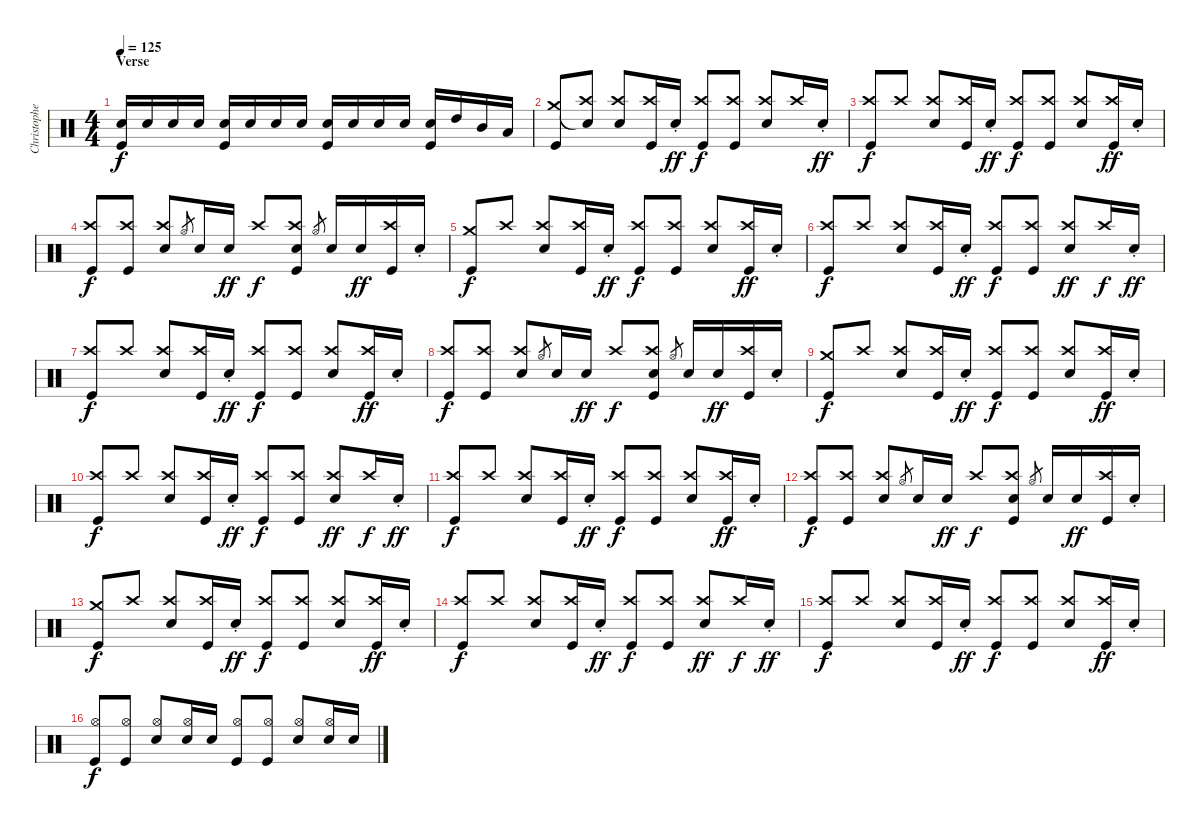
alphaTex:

\track ("Christopher - Drums" "Christophe") {instrument percussion}
\staff {score}
\articulation defaults
\ts (4 4)
\section ("" "Verse")
\tempo 125
\clef neutral
\ks c
("Electric Snare (hit)" "Kick (hit)").16{dy f beam Up} "Electric Snare (hit)".16{beam Up} "Electric Snare (hit)".16{beam Up} "Electric Snare (hit)".16{beam Up} ("Electric Snare (hit)" "Kick (hit)").16{beam Up} "Electric Snare (hit)".16{beam Up} "Electric Snare (hit)".16{beam Up} "Electric Snare (hit)".16{beam Up} ("Electric Snare (hit)" "Kick (hit)").16{beam Up} "Electric Snare (hit)".16{beam Up} "Electric Snare (hit)".16{beam Up} "Electric Snare (hit)".16{beam Up} ("Electric Snare (hit)" "Kick (hit)").16{beam Up} "High Tom (hit)".16{beam Up} "Mid Tom (hit)".16{beam Up} "Low Floor Tom (hit)".16{beam Up} |
("Crash medium (hit)" "Kick (hit)").8{beam Up} ("Snare (hit)"{t} "Crash high (hit)").8{beam Up} ("Crash high (hit)" "Electric Snare (hit)").8{beam Up} ("Crash high (hit)" "Kick (hit)").16{beam Up} "Electric Snare (hit)"{st}.16{dy ff beam Up} ("Crash high (hit)" "Kick (hit)").8{dy f beam Up} ("Crash high (hit)" "Kick (hit)").8{beam Up} ("Crash high (hit)" "Electric Snare (hit)").8{beam Up} "Crash high (hit)".16{beam Up} "Electric Snare (hit)"{st}.16{dy ff beam Up} |
("Crash high (hit)" "Kick (hit)").8{dy f beam Up} "Crash high (hit)".8{beam Up} ("Crash high (hit)" "Electric Snare (hit)").8{beam Up} ("Crash high (hit)" "Kick (hit)").16{beam Up} "Electric Snare (hit)"{st}.16{dy ff beam Up} ("Crash high (hit)" "Kick (hit)").8{dy f beam Up} ("Crash high (hit)" "Kick (hit)").8{beam Up} ("Crash high (hit)" "Electric Snare (hit)").8{beam Up} ("Crash high (hit)" "Kick (hit)").16{dy ff beam Up} "Electric Snare (hit)"{st}.16{beam Up} |
("Crash high (hit)" "Kick (hit)").8{dy f beam Up} ("Crash high (hit)" "Kick (hit)").8{beam Up} ("Crash high (hit)" "Electric Snare (hit)").8{beam Up} "Hi-Hat (open)".8{gr} "Electric Snare (hit)".16{beam Up} "Electric Snare (hit)".16{dy ff beam Up} "Crash high (hit)".8{dy f beam Up} ("Crash high (hit)" "Electric Snare (hit)" "Kick (hit)").8{beam Up} "Hi-Hat (open)".8{gr} "Electric Snare (hit)".16{beam Up} "Electric Snare (hit)".16{dy ff beam Up} ("Crash high (hit)" "Kick (hit)").16{beam Up} "Electric Snare (hit)"{st}.16{beam Up} |
("Crash medium (hit)" "Kick (hit)").8{dy f beam Up} "Crash high (hit)".8{beam Up} ("Crash high (hit)" "Electric Snare (hit)").8{beam Up} ("Crash high (hit)" "Kick (hit)").16{beam Up} "Electric Snare (hit)"{st}.16{dy ff beam Up} ("Crash high (hit)" "Kick (hit)").8{dy f beam Up} ("Crash high (hit)" "Kick (hit)").8{beam Up} ("Crash high (hit)" "Electric Snare (hit)").8{beam Up} ("Crash high (hit)" "Kick (hit)").16{dy ff beam Up} "Electric Snare (hit)"{st}.16{beam Up} |
("Crash high (hit)" "Kick (hit)").8{dy f beam Up} "Crash high (hit)".8{beam Up} ("Crash high (hit)" "Electric Snare (hit)").8{beam Up} ("Crash high (hit)" "Kick (hit)").16{beam Up} "Electric Snare (hit)"{st}.16{dy ff beam Up} ("Crash high (hit)" "Kick (hit)").8{dy f beam Up} ("Crash high (hit)" "Kick (hit)").8{beam Up} ("Crash high (hit)" "Electric Snare (hit)").8{dy ff beam Up} "Crash high (hit)".16{dy f beam Up} "Electric Snare (hit)"{st}.16{dy ff beam Up} |
("Crash high (hit)" "Kick (hit)").8{dy f beam Up} "Crash high (hit)".8{beam Up} ("Crash high (hit)" "Electric Snare (hit)").8{beam Up} ("Crash high (hit)" "Kick (hit)").16{beam Up} "Electric Snare (hit)"{st}.16{dy ff beam Up} ("Crash high (hit)" "Kick (hit)").8{dy f beam Up} ("Crash high (hit)" "Kick (hit)").8{beam Up} ("Crash high (hit)" "Electric Snare (hit)").8{beam Up} ("Crash high (hit)" "Kick (hit)").16{dy ff beam Up} "Electric Snare (hit)"{st}.16{beam Up} |
("Crash high (hit)" "Kick (hit)").8{dy f beam Up} ("Crash high (hit)" "Kick (hit)").8{beam Up} ("Crash high (hit)" "Electric Snare (hit)").8{beam Up} "Hi-Hat (open)".8{gr} "Electric Snare (hit)".16{beam Up} "Electric Snare (hit)".16{dy ff beam Up} "Crash high (hit)".8{dy f beam Up} ("Crash high (hit)" "Electric Snare (hit)" "Kick (hit)").8{beam Up} "Hi-Hat (open)".8{gr} "Electric Snare (hit)".16{beam Up} "Electric Snare (hit)".16{dy ff beam Up} ("Crash high (hit)" "Kick (hit)").16{beam Up} "Electric Snare (hit)"{st}.16{beam Up} |
("Crash medium (hit)" "Kick (hit)").8{dy f beam Up} "Crash high (hit)".8{beam Up} ("Crash high (hit)" "Electric Snare (hit)").8{beam Up} ("Crash high (hit)" "Kick (hit)").16{beam Up} "Electric Snare (hit)"{st}.16{dy ff beam Up} ("Crash high (hit)" "Kick (hit)").8{dy f beam Up} ("Crash high (hit)" "Kick (hit)").8{beam Up} ("Crash high (hit)" "Electric Snare (hit)").8{beam Up} ("Crash high (hit)" "Kick (hit)").16{dy ff beam Up} "Electric Snare (hit)"{st}.16{beam Up} |
("Crash high (hit)" "Kick (hit)").8{dy f beam Up} "Crash high (hit)".8{beam Up} ("Crash high (hit)" "Electric Snare (hit)").8{beam Up} ("Crash high (hit)" "Kick (hit)").16{beam Up} "Electric Snare (hit)"{st}.16{dy ff beam Up} ("Crash high (hit)" "Kick (hit)").8{dy f beam Up} ("Crash high (hit)" "Kick (hit)").8{beam Up} ("Crash high (hit)" "Electric Snare (hit)").8{dy ff beam Up} "Crash high (hit)".16{dy f beam Up} "Electric Snare (hit)"{st}.16{dy ff beam Up} |
("Crash high (hit)" "Kick (hit)").8{dy f beam Up} "Crash high (hit)".8{beam Up} ("Crash high (hit)" "Electric Snare (hit)").8{beam Up} ("Crash high (hit)" "Kick (hit)").16{beam Up} "Electric Snare (hit)"{st}.16{dy ff beam Up} ("Crash high (hit)" "Kick (hit)").8{dy f beam Up} ("Crash high (hit)" "Kick (hit)").8{beam Up} ("Crash high (hit)" "Electric Snare (hit)").8{beam Up} ("Crash high (hit)" "Kick (hit)").16{dy ff beam Up} "Electric Snare (hit)"{st}.16{beam Up} |
("Crash high (hit)" "Kick (hit)").8{dy f beam Up} ("Crash high (hit)" "Kick (hit)").8{beam Up} ("Crash high (hit)" "Electric Snare (hit)").8{beam Up} "Hi-Hat (open)".8{gr} "Electric Snare (hit)".16{beam Up} "Electric Snare (hit)".16{dy ff beam Up} "Crash high (hit)".8{dy f beam Up} ("Crash high (hit)" "Electric Snare (hit)" "Kick (hit)").8{beam Up} "Hi-Hat (open)".8{gr} "Electric Snare (hit)".16{beam Up} "Electric Snare (hit)".16{dy ff beam Up} ("Crash high (hit)" "Kick (hit)").16{beam Up} "Electric Snare (hit)"{st}.16{beam Up} |
("Crash medium (hit)" "Kick (hit)").8{dy f beam Up} "Crash high (hit)".8{beam Up} ("Crash high (hit)" "Electric Snare (hit)").8{beam Up} ("Crash high (hit)" "Kick (hit)").16{beam Up} "Electric Snare (hit)"{st}.16{dy ff beam Up} ("Crash high (hit)" "Kick (hit)").8{dy f beam Up} ("Crash high (hit)" "Kick (hit)").8{beam Up} ("Crash high (hit)" "Electric Snare (hit)").8{beam Up} ("Crash high (hit)" "Kick (hit)").16{dy ff beam Up} "Electric Snare (hit)"{st}.16{beam Up} |
("Crash high (hit)" "Kick (hit)").8{dy f beam Up} "Crash high (hit)".8{beam Up} ("Crash high (hit)" "Electric Snare (hit)").8{beam Up} ("Crash high (hit)" "Kick (hit)").16{beam Up} "Electric Snare (hit)"{st}.16{dy ff beam Up} ("Crash high (hit)" "Kick (hit)").8{dy f beam Up} ("Crash high (hit)" "Kick (hit)").8{beam Up} ("Crash high (hit)" "Electric Snare (hit)").8{dy ff beam Up} "Crash high (hit)".16{dy f beam Up} "Electric Snare (hit)"{st}.16{dy ff beam Up} |
("Crash high (hit)" "Kick (hit)").8{dy f beam Up} "Crash high (hit)".8{beam Up} ("Crash high (hit)" "Electric Snare (hit)").8{beam Up} ("Crash high (hit)" "Kick (hit)").16{beam Up} "Electric Snare (hit)"{st}.16{dy ff beam Up} ("Crash high (hit)" "Kick (hit)").8{dy f beam Up} ("Crash high (hit)" "Kick (hit)").8{beam Up} ("Crash high (hit)" "Electric Snare (hit)").8{beam Up} ("Crash high (hit)" "Kick (hit)").16{dy ff beam Up} "Electric Snare (hit)"{st}.16{beam Up} |
("Hi-Hat (open)" "Kick (hit)").8{dy f beam Up} ("Hi-Hat (open)" "Kick (hit)").8{beam Up} ("Hi-Hat (open)" "Electric Snare (hit)").8{beam Up} ("Hi-Hat (open)" "Electric Snare (hit)").16{beam Up} "Electric Snare (hit)".16{beam Up} ("Hi-Hat (open)" "Kick (hit)").8{beam Up} ("Hi-Hat (open)" "Kick (hit)").8{beam Up} ("Hi-Hat (open)" "Electric Snare (hit)").8{beam Up} ("Hi-Hat (open)" "Electric Snare (hit)").16{beam Up} "Electric Snare (hit)".16{beam Up}
